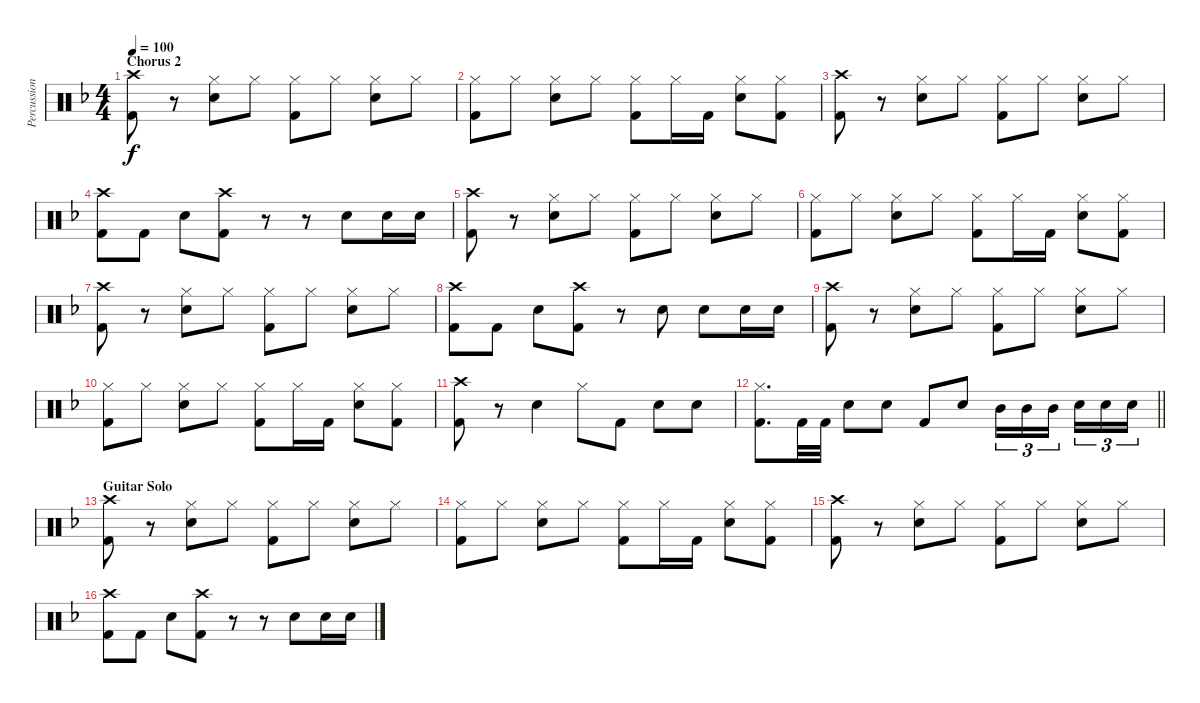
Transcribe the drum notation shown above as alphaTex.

\track ("Percussion" "Percussion") {instrument percussion}
\staff {score}
\articulation defaults
\ts (4 4)
\section ("" "Chorus 2")
\tempo 100
\clef neutral
\ks dminor
("Crash high (hit)" "Kick (hit) 2").8{dy f} r.8 ("Hi-Hat (closed)" "Snare (hit) 2").8 "Hi-Hat (closed)".8 ("Hi-Hat (closed)" "Kick (hit) 2").8 "Hi-Hat (closed)".8 ("Hi-Hat (closed)" "Snare (hit) 2").8 "Hi-Hat (closed)".8 |
("Hi-Hat (closed)" "Kick (hit) 2").8 "Hi-Hat (closed)".8 ("Hi-Hat (closed)" "Snare (hit) 2").8 "Hi-Hat (closed)".8 ("Hi-Hat (closed)" "Kick (hit) 2").8 "Hi-Hat (closed)".16 "Kick (hit) 2".16 ("Hi-Hat (closed)" "Snare (hit) 2").8 ("Hi-Hat (closed)" "Kick (hit) 2").8 |
("Crash high (hit)" "Kick (hit) 2").8 r.8 ("Hi-Hat (closed)" "Snare (hit) 2").8 "Hi-Hat (closed)".8 ("Hi-Hat (closed)" "Kick (hit) 2").8 "Hi-Hat (closed)".8 ("Hi-Hat (closed)" "Snare (hit) 2").8 "Hi-Hat (closed)".8 |
("Crash high (hit)" "Kick (hit) 2").8 "Kick (hit) 2".8 "Snare (hit) 2".8 ("Crash high (hit)" "Kick (hit) 2").8 r.8 r.8 "Snare (hit) 2".8 "Snare (hit) 2".16 "Snare (hit) 2".16 |
("Crash high (hit)" "Kick (hit) 2").8 r.8 ("Hi-Hat (closed)" "Snare (hit) 2").8 "Hi-Hat (closed)".8 ("Hi-Hat (closed)" "Kick (hit) 2").8 "Hi-Hat (closed)".8 ("Hi-Hat (closed)" "Snare (hit) 2").8 "Hi-Hat (closed)".8 |
("Hi-Hat (closed)" "Kick (hit) 2").8 "Hi-Hat (closed)".8 ("Hi-Hat (closed)" "Snare (hit) 2").8 "Hi-Hat (closed)".8 ("Hi-Hat (closed)" "Kick (hit) 2").8 "Hi-Hat (closed)".16 "Kick (hit) 2".16 ("Hi-Hat (closed)" "Snare (hit) 2").8 ("Hi-Hat (closed)" "Kick (hit) 2").8 |
("Crash high (hit)" "Kick (hit) 2").8 r.8 ("Hi-Hat (closed)" "Snare (hit) 2").8 "Hi-Hat (closed)".8 ("Hi-Hat (closed)" "Kick (hit) 2").8 "Hi-Hat (closed)".8 ("Hi-Hat (closed)" "Snare (hit) 2").8 "Hi-Hat (closed)".8 |
("Crash high (hit)" "Kick (hit) 2").8 "Kick (hit) 2".8 "Snare (hit) 2".8 ("Crash high (hit)" "Kick (hit) 2").8 r.8 "Snare (hit) 2".8 "Snare (hit) 2".8 "Snare (hit) 2".16 "Snare (hit) 2".16 |
("Crash high (hit)" "Kick (hit) 2").8 r.8 ("Hi-Hat (closed)" "Snare (hit) 2").8 "Hi-Hat (closed)".8 ("Hi-Hat (closed)" "Kick (hit) 2").8 "Hi-Hat (closed)".8 ("Hi-Hat (closed)" "Snare (hit) 2").8 "Hi-Hat (closed)".8 |
("Hi-Hat (closed)" "Kick (hit) 2").8 "Hi-Hat (closed)".8 ("Hi-Hat (closed)" "Snare (hit) 2").8 "Hi-Hat (closed)".8 ("Hi-Hat (closed)" "Kick (hit) 2").8 "Hi-Hat (closed)".16 "Kick (hit) 2".16 ("Hi-Hat (closed)" "Snare (hit) 2").8 ("Hi-Hat (closed)" "Kick (hit) 2").8 |
("Crash high (hit)" "Kick (hit) 2").8 r.8 "Snare (hit) 2".4 "Hi-Hat (closed)".8 "Kick (hit) 2".8 "Snare (hit) 2".8 "Snare (hit) 2".8 |
\barLineRight lightlight
("Hi-Hat (closed)" "Kick (hit) 2").8{d} "Kick (hit) 2".32 "Kick (hit) 2".32 "Snare (hit) 2".8 "Snare (hit) 2".8 "Kick (hit) 2".8 "Snare (hit) 2".8 "Mid Tom (hit)".16{tu (3 2)} "Mid Tom (hit)".16{tu (3 2)} "Mid Tom (hit)".16{tu (3 2) beam splitsecondary} "Snare (hit) 2".16{tu (3 2)} "Snare (hit) 2".16{tu (3 2)} "Snare (hit) 2".16{tu (3 2)} |
\section ("" "Guitar Solo")
("Crash high (hit)" "Kick (hit) 2").8 r.8 ("Hi-Hat (closed)" "Snare (hit) 2").8 "Hi-Hat (closed)".8 ("Hi-Hat (closed)" "Kick (hit) 2").8 "Hi-Hat (closed)".8 ("Hi-Hat (closed)" "Snare (hit) 2").8 "Hi-Hat (closed)".8 |
("Hi-Hat (closed)" "Kick (hit) 2").8 "Hi-Hat (closed)".8 ("Hi-Hat (closed)" "Snare (hit) 2").8 "Hi-Hat (closed)".8 ("Hi-Hat (closed)" "Kick (hit) 2").8 "Hi-Hat (closed)".16 "Kick (hit) 2".16 ("Hi-Hat (closed)" "Snare (hit) 2").8 ("Hi-Hat (closed)" "Kick (hit) 2").8 |
("Crash high (hit)" "Kick (hit) 2").8 r.8 ("Hi-Hat (closed)" "Snare (hit) 2").8 "Hi-Hat (closed)".8 ("Hi-Hat (closed)" "Kick (hit) 2").8 "Hi-Hat (closed)".8 ("Hi-Hat (closed)" "Snare (hit) 2").8 "Hi-Hat (closed)".8 |
("Crash high (hit)" "Kick (hit) 2").8 "Kick (hit) 2".8 "Snare (hit) 2".8 ("Crash high (hit)" "Kick (hit) 2").8 r.8 r.8 "Snare (hit) 2".8 "Snare (hit) 2".16 "Snare (hit) 2".16
